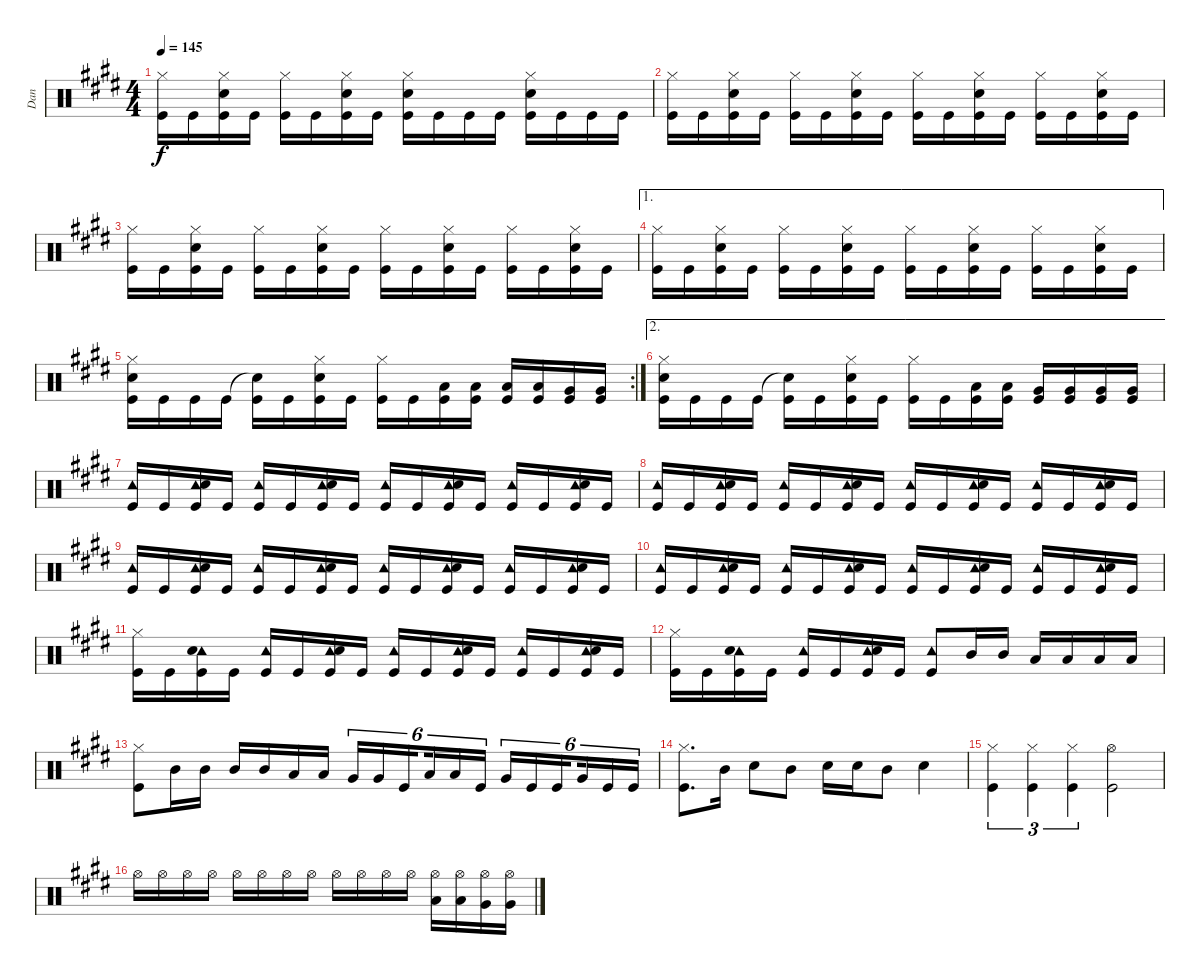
\track ("Dan" "Dan") {instrument percussion}
\staff {score}
\articulation defaults
\ts (4 4)
\tempo 145
\clef neutral
\ks e
("Hi-Hat (closed)" "Kick (hit)").16{dy f} "Kick (hit)".16 ("Hi-Hat (closed)" "Snare (hit) 2" "Kick (hit)").16 "Kick (hit)".16 ("Hi-Hat (closed)" "Kick (hit)").16 "Kick (hit)".16 ("Hi-Hat (closed)" "Snare (hit) 2" "Kick (hit)").16 "Kick (hit)".16 ("Hi-Hat (closed)" "Snare (hit) 2" "Kick (hit)").16 "Kick (hit)".16 "Kick (hit)".16 "Kick (hit)".16 ("Hi-Hat (closed)" "Snare (hit) 2" "Kick (hit)").16 "Kick (hit)".16 "Kick (hit)".16 "Kick (hit)".16 |
("Hi-Hat (closed)" "Kick (hit)").16 "Kick (hit)".16 ("Hi-Hat (closed)" "Snare (hit) 2" "Kick (hit)").16 "Kick (hit)".16 ("Hi-Hat (closed)" "Kick (hit)").16 "Kick (hit)".16 ("Hi-Hat (closed)" "Snare (hit) 2" "Kick (hit)").16 "Kick (hit)".16 ("Hi-Hat (closed)" "Kick (hit)").16 "Kick (hit)".16 ("Hi-Hat (closed)" "Snare (hit) 2" "Kick (hit)").16 "Kick (hit)".16 ("Hi-Hat (closed)" "Kick (hit)").16 "Kick (hit)".16 ("Hi-Hat (closed)" "Snare (hit) 2" "Kick (hit)").16 "Kick (hit)".16 |
("Hi-Hat (closed)" "Kick (hit)").16 "Kick (hit)".16 ("Hi-Hat (closed)" "Snare (hit) 2" "Kick (hit)").16 "Kick (hit)".16 ("Hi-Hat (closed)" "Kick (hit)").16 "Kick (hit)".16 ("Hi-Hat (closed)" "Snare (hit) 2" "Kick (hit)").16 "Kick (hit)".16 ("Hi-Hat (closed)" "Kick (hit)").16 "Kick (hit)".16 ("Hi-Hat (closed)" "Snare (hit) 2" "Kick (hit)").16 "Kick (hit)".16 ("Hi-Hat (closed)" "Kick (hit)").16 "Kick (hit)".16 ("Hi-Hat (closed)" "Snare (hit) 2" "Kick (hit)").16 "Kick (hit)".16 |
\ae 1
("Hi-Hat (closed)" "Kick (hit)").16 "Kick (hit)".16 ("Hi-Hat (closed)" "Snare (hit) 2" "Kick (hit)").16 "Kick (hit)".16 ("Hi-Hat (closed)" "Kick (hit)").16 "Kick (hit)".16 ("Hi-Hat (closed)" "Snare (hit) 2" "Kick (hit)").16 "Kick (hit)".16 ("Hi-Hat (closed)" "Kick (hit)").16 "Kick (hit)".16 ("Hi-Hat (closed)" "Snare (hit) 2" "Kick (hit)").16 "Kick (hit)".16 ("Hi-Hat (closed)" "Kick (hit)").16 "Kick (hit)".16 ("Hi-Hat (closed)" "Snare (hit) 2" "Kick (hit)").16 "Kick (hit)".16 |
\rc 2
("Hi-Hat (closed)" "Snare (hit) 2" "Kick (hit)").16 "Kick (hit)".16 "Kick (hit)".16 "Kick (hit)".16 ("Snare (hit)"{t} "Kick (hit)").16 "Kick (hit)".16 ("Hi-Hat (closed)" "Snare (hit) 2" "Kick (hit)").16 "Kick (hit)".16 ("Hi-Hat (closed)" "Kick (hit)").16 "Kick (hit)".16 ("Low Tom (hit)" "Kick (hit)").16 ("Low Tom (hit)" "Kick (hit)").16 ("Low Tom (hit)" "Kick (hit)").16 ("Low Tom (hit)" "Kick (hit)").16 ("Very Low Tom (hit)" "Kick (hit)").16 ("Very Low Tom (hit)" "Kick (hit)").16 |
\ae 2
("Hi-Hat (closed)" "Snare (hit) 2" "Kick (hit)").16 "Kick (hit)".16 "Kick (hit)".16 "Kick (hit)".16 ("Snare (hit)"{t} "Kick (hit)").16 "Kick (hit)".16 ("Hi-Hat (closed)" "Snare (hit) 2" "Kick (hit)").16 "Kick (hit)".16 ("Hi-Hat (closed)" "Kick (hit)").16 "Kick (hit)".16 ("Low Tom (hit)" "Kick (hit)").16 ("Low Tom (hit)" "Kick (hit)").16 ("Very Low Tom (hit)" "Kick (hit)").16 ("Very Low Tom (hit)" "Kick (hit)").16 ("Very Low Tom (hit)" "Kick (hit)").16 ("Very Low Tom (hit)" "Kick (hit)").16 |
("Tambourine (hit)" "Kick (hit)").16 "Kick (hit)".16 ("Tambourine (hit)" "Snare (hit) 2" "Kick (hit)").16 "Kick (hit)".16 ("Tambourine (hit)" "Kick (hit)").16 "Kick (hit)".16 ("Tambourine (hit)" "Snare (hit) 2" "Kick (hit)").16 "Kick (hit)".16 ("Tambourine (hit)" "Kick (hit)").16 "Kick (hit)".16 ("Tambourine (hit)" "Snare (hit) 2" "Kick (hit)").16 "Kick (hit)".16 ("Tambourine (hit)" "Kick (hit)").16 "Kick (hit)".16 ("Tambourine (hit)" "Snare (hit) 2" "Kick (hit)").16 "Kick (hit)".16 |
("Tambourine (hit)" "Kick (hit)").16 "Kick (hit)".16 ("Tambourine (hit)" "Snare (hit) 2" "Kick (hit)").16 "Kick (hit)".16 ("Tambourine (hit)" "Kick (hit)").16 "Kick (hit)".16 ("Tambourine (hit)" "Snare (hit) 2" "Kick (hit)").16 "Kick (hit)".16 ("Tambourine (hit)" "Kick (hit)").16 "Kick (hit)".16 ("Tambourine (hit)" "Snare (hit) 2" "Kick (hit)").16 "Kick (hit)".16 ("Tambourine (hit)" "Kick (hit)").16 "Kick (hit)".16 ("Tambourine (hit)" "Snare (hit) 2" "Kick (hit)").16 "Kick (hit)".16 |
("Tambourine (hit)" "Kick (hit)").16 "Kick (hit)".16 ("Tambourine (hit)" "Snare (hit) 2" "Kick (hit)").16 "Kick (hit)".16 ("Tambourine (hit)" "Kick (hit)").16 "Kick (hit)".16 ("Tambourine (hit)" "Snare (hit) 2" "Kick (hit)").16 "Kick (hit)".16 ("Tambourine (hit)" "Kick (hit)").16 "Kick (hit)".16 ("Tambourine (hit)" "Snare (hit) 2" "Kick (hit)").16 "Kick (hit)".16 ("Tambourine (hit)" "Kick (hit)").16 "Kick (hit)".16 ("Tambourine (hit)" "Snare (hit) 2" "Kick (hit)").16 "Kick (hit)".16 |
("Tambourine (hit)" "Kick (hit)").16 "Kick (hit)".16 ("Tambourine (hit)" "Snare (hit) 2" "Kick (hit)").16 "Kick (hit)".16 ("Tambourine (hit)" "Kick (hit)").16 "Kick (hit)".16 ("Tambourine (hit)" "Snare (hit) 2" "Kick (hit)").16 "Kick (hit)".16 ("Tambourine (hit)" "Kick (hit)").16 "Kick (hit)".16 ("Tambourine (hit)" "Snare (hit) 2" "Kick (hit)").16 "Kick (hit)".16 ("Tambourine (hit)" "Kick (hit)").16 "Kick (hit)".16 ("Tambourine (hit)" "Snare (hit) 2" "Kick (hit)").16 "Kick (hit)".16 |
("Hi-Hat (closed)" "Kick (hit)").16 "Kick (hit)".16 ("Tambourine (hit)" "Snare (hit) 2" "Kick (hit)").16 "Kick (hit)".16 ("Tambourine (hit)" "Kick (hit)").16 "Kick (hit)".16 ("Tambourine (hit)" "Snare (hit) 2" "Kick (hit)").16 "Kick (hit)".16 ("Tambourine (hit)" "Kick (hit)").16 "Kick (hit)".16 ("Tambourine (hit)" "Snare (hit) 2" "Kick (hit)").16 "Kick (hit)".16 ("Tambourine (hit)" "Kick (hit)").16 "Kick (hit)".16 ("Tambourine (hit)" "Snare (hit) 2" "Kick (hit)").16 "Kick (hit)".16 |
("Hi-Hat (closed)" "Kick (hit)").16 "Kick (hit)".16 ("Tambourine (hit)" "Snare (hit) 2" "Kick (hit)").16 "Kick (hit)".16 ("Tambourine (hit)" "Kick (hit)").16 "Kick (hit)".16 ("Tambourine (hit)" "Snare (hit) 2" "Kick (hit)").16 "Kick (hit)".16 ("Tambourine (hit)" "Kick (hit)").8 "Mid Tom (hit)".16 "Mid Tom (hit)".16 "Low Tom (hit)".16 "Low Tom (hit)".16 "Low Tom (hit)".16 "Low Tom (hit)".16 |
("Hi-Hat (closed)" "Kick (hit)").8 "Mid Tom (hit)".16 "Mid Tom (hit)".16 "Mid Tom (hit)".16 "Mid Tom (hit)".16 "Low Tom (hit)".16 "Low Tom (hit)".16 "Very Low Tom (hit)".16{tu (6 4)} "Very Low Tom (hit)".16{tu (6 4)} "Kick (hit)".16{tu (6 4) beam splitsecondary} "Low Floor Tom (hit)".16{tu (6 4)} "Low Floor Tom (hit)".16{tu (6 4)} "Kick (hit)".16{tu (6 4)} "Very Low Tom (hit)".16{tu (6 4)} "Kick (hit)".16{tu (6 4)} "Kick (hit)".16{tu (6 4) beam splitsecondary} "Very Low Tom (hit)".16{tu (6 4)} "Kick (hit)".16{tu (6 4)} "Kick (hit)".16{tu (6 4)} |
("Hi-Hat (closed)" "Kick (hit)").8{d} "Mid Tom (hit)".16 "Snare (hit) 2".8 "Mid Tom (hit)".8 "Snare (hit) 2".16 "Snare (hit) 2".16 "Mid Tom (hit)".8 "Snare (hit) 2".4 |
("Hi-Hat (closed)" "Kick (hit)").4{tu (3 2)} ("Hi-Hat (closed)" "Kick (hit)").4{tu (3 2)} ("Hi-Hat (closed)" "Kick (hit)").4{tu (3 2)} ("Hi-Hat (open)" "Kick (hit)").2 |
"Hi-Hat (open)".16 "Hi-Hat (open)".16 "Hi-Hat (open)".16 "Hi-Hat (open)".16 "Hi-Hat (open)".16 "Hi-Hat (open)".16 "Hi-Hat (open)".16 "Hi-Hat (open)".16 "Hi-Hat (open)".16 "Hi-Hat (open)".16 "Hi-Hat (open)".16 "Hi-Hat (open)".16 ("Hi-Hat (open)" "Low Tom (hit)").16 ("Hi-Hat (open)" "Low Tom (hit)").16 ("Hi-Hat (open)" "Very Low Tom (hit)").16 ("Hi-Hat (open)" "Very Low Tom (hit)").16
